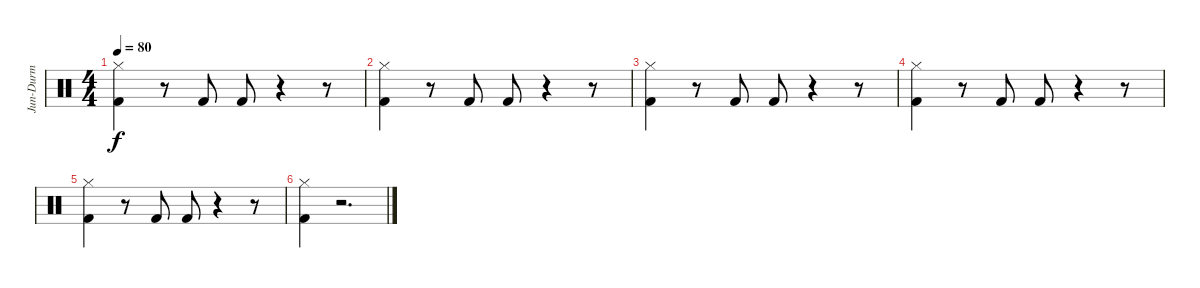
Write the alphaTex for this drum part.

\track ("Jun-Durm" "Jun-Durm") {instrument percussion}
\staff {score}
\articulation defaults
\ts (4 4)
\tempo 80
\clef neutral
\ks c
("Hi-Hat (closed)" "Kick (hit) 2").4{dy f} r.8 "Kick (hit) 2".8 "Kick (hit) 2".8 r.4 r.8 |
("Hi-Hat (closed)" "Kick (hit) 2").4 r.8 "Kick (hit) 2".8 "Kick (hit) 2".8 r.4 r.8 |
("Hi-Hat (closed)" "Kick (hit) 2").4 r.8 "Kick (hit) 2".8 "Kick (hit) 2".8 r.4 r.8 |
("Hi-Hat (closed)" "Kick (hit) 2").4 r.8 "Kick (hit) 2".8 "Kick (hit) 2".8 r.4 r.8 |
("Hi-Hat (closed)" "Kick (hit) 2").4 r.8 "Kick (hit) 2".8 "Kick (hit) 2".8 r.4 r.8 |
("Hi-Hat (closed)" "Kick (hit) 2").4 r.2{d}
